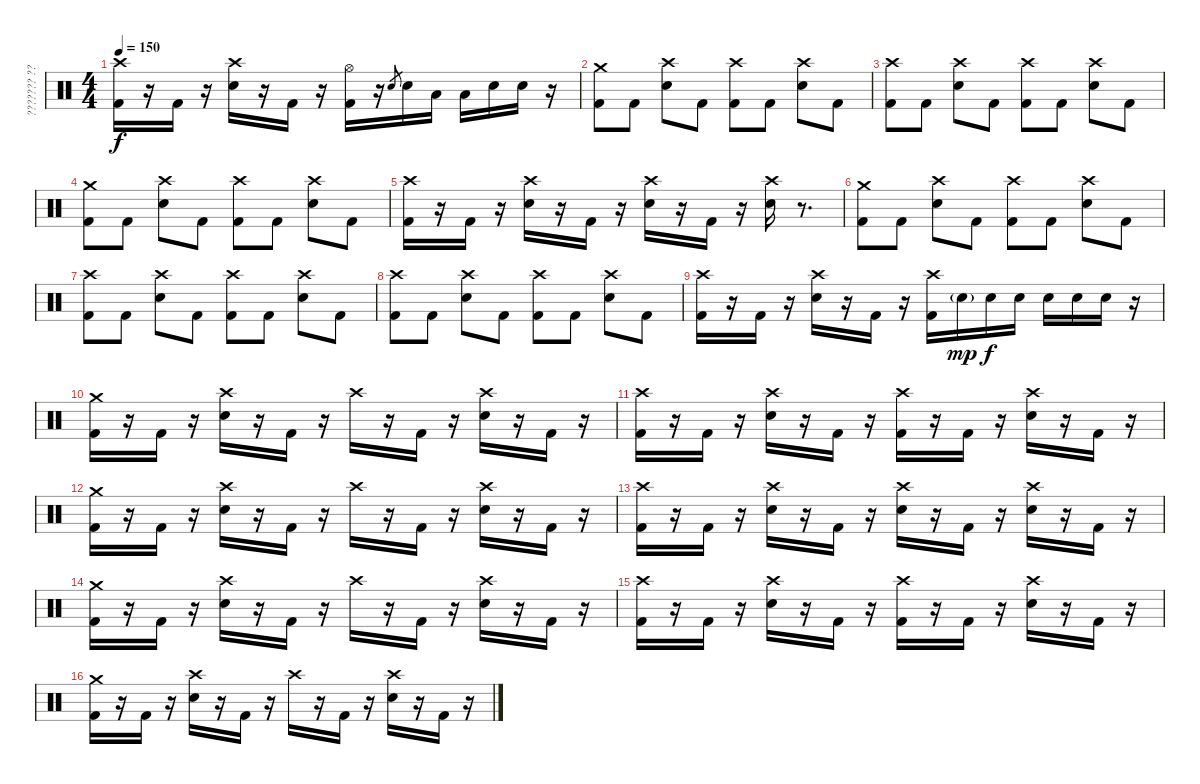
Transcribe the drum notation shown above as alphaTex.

\track ("??????? ?????????" "??????? ??") {instrument percussion}
\staff {score}
\articulation defaults
\ts (4 4)
\tempo 150
\clef neutral
\ks c
("Crash high (hit)" "Kick (hit) 2").16{dy f} r.16 "Kick (hit) 2".16 r.16 ("Crash high (hit)" "Electric Snare (hit)").16 r.16 "Kick (hit) 2".16 r.16 ("Hi-Hat (open)" "Kick (hit) 2").16 r.16 "Electric Snare (hit)".8{gr} "Electric Snare (hit)".16 "Low Tom (hit)".16 "Low Tom (hit)".16 "Electric Snare (hit)".16 "Electric Snare (hit)".16 r.16 |
("Crash medium (hit)" "Kick (hit) 2").8 "Kick (hit) 2".8 ("Crash high (hit)" "Electric Snare (hit)").8 "Kick (hit) 2".8 ("Crash high (hit)" "Kick (hit) 2").8 "Kick (hit) 2".8 ("Crash high (hit)" "Electric Snare (hit)").8 "Kick (hit) 2".8 |
("Crash high (hit)" "Kick (hit) 2").8 "Kick (hit) 2".8 ("Crash high (hit)" "Electric Snare (hit)").8 "Kick (hit) 2".8 ("Crash high (hit)" "Kick (hit) 2").8 "Kick (hit) 2".8 ("Crash high (hit)" "Electric Snare (hit)").8 "Kick (hit) 2".8 |
("Crash medium (hit)" "Kick (hit) 2").8 "Kick (hit) 2".8 ("Crash high (hit)" "Electric Snare (hit)").8 "Kick (hit) 2".8 ("Crash high (hit)" "Kick (hit) 2").8 "Kick (hit) 2".8 ("Crash high (hit)" "Electric Snare (hit)").8 "Kick (hit) 2".8 |
("Crash high (hit)" "Kick (hit) 2").16 r.16 "Kick (hit) 2".16 r.16 ("Crash high (hit)" "Electric Snare (hit)").16 r.16 "Kick (hit) 2".16 r.16 ("Crash high (hit)" "Electric Snare (hit)").16 r.16 "Kick (hit) 2".16 r.16 ("Crash high (hit)" "Electric Snare (hit)").16 r.8{d} |
("Crash medium (hit)" "Kick (hit) 2").8 "Kick (hit) 2".8 ("Crash high (hit)" "Electric Snare (hit)").8 "Kick (hit) 2".8 ("Crash high (hit)" "Kick (hit) 2").8 "Kick (hit) 2".8 ("Crash high (hit)" "Electric Snare (hit)").8 "Kick (hit) 2".8 |
("Crash high (hit)" "Kick (hit) 2").8 "Kick (hit) 2".8 ("Crash high (hit)" "Electric Snare (hit)").8 "Kick (hit) 2".8 ("Crash high (hit)" "Kick (hit) 2").8 "Kick (hit) 2".8 ("Crash high (hit)" "Electric Snare (hit)").8 "Kick (hit) 2".8 |
("Crash high (hit)" "Kick (hit) 2").8 "Kick (hit) 2".8 ("Crash high (hit)" "Electric Snare (hit)").8 "Kick (hit) 2".8 ("Crash high (hit)" "Kick (hit) 2").8 "Kick (hit) 2".8 ("Crash high (hit)" "Electric Snare (hit)").8 "Kick (hit) 2".8 |
("Crash high (hit)" "Kick (hit) 2").16 r.16 "Kick (hit) 2".16 r.16 ("Crash high (hit)" "Electric Snare (hit)").16 r.16 "Kick (hit) 2".16 r.16 ("Crash high (hit)" "Kick (hit) 2").16 "Electric Snare (hit)"{g}.16{dy mp} "Electric Snare (hit)".16{dy f} "Electric Snare (hit)".16 "Electric Snare (hit)".16 "Electric Snare (hit)".16 "Electric Snare (hit)".16 r.16 |
("Crash medium (hit)" "Kick (hit) 2").16 r.16 "Kick (hit) 2".16 r.16 ("Crash high (hit)" "Electric Snare (hit)").16 r.16 "Kick (hit) 2".16 r.16 "Crash high (hit)".16 r.16 "Kick (hit) 2".16 r.16 ("Crash high (hit)" "Electric Snare (hit)").16 r.16 "Kick (hit) 2".16 r.16 |
("Crash high (hit)" "Kick (hit) 2").16 r.16 "Kick (hit) 2".16 r.16 ("Crash high (hit)" "Electric Snare (hit)").16 r.16 "Kick (hit) 2".16 r.16 ("Crash high (hit)" "Kick (hit) 2").16 r.16 "Kick (hit) 2".16 r.16 ("Crash high (hit)" "Electric Snare (hit)").16 r.16 "Kick (hit) 2".16 r.16 |
("Crash medium (hit)" "Kick (hit) 2").16 r.16 "Kick (hit) 2".16 r.16 ("Crash high (hit)" "Electric Snare (hit)").16 r.16 "Kick (hit) 2".16 r.16 "Crash high (hit)".16 r.16 "Kick (hit) 2".16 r.16 ("Crash high (hit)" "Electric Snare (hit)").16 r.16 "Kick (hit) 2".16 r.16 |
("Crash high (hit)" "Kick (hit) 2").16 r.16 "Kick (hit) 2".16 r.16 ("Crash high (hit)" "Electric Snare (hit)").16 r.16 "Kick (hit) 2".16 r.16 ("Crash high (hit)" "Electric Snare (hit)").16 r.16 "Kick (hit) 2".16 r.16 ("Crash high (hit)" "Electric Snare (hit)").16 r.16 "Kick (hit) 2".16 r.16 |
("Crash medium (hit)" "Kick (hit) 2").16 r.16 "Kick (hit) 2".16 r.16 ("Crash high (hit)" "Electric Snare (hit)").16 r.16 "Kick (hit) 2".16 r.16 "Crash high (hit)".16 r.16 "Kick (hit) 2".16 r.16 ("Crash high (hit)" "Electric Snare (hit)").16 r.16 "Kick (hit) 2".16 r.16 |
("Crash high (hit)" "Kick (hit) 2").16 r.16 "Kick (hit) 2".16 r.16 ("Crash high (hit)" "Electric Snare (hit)").16 r.16 "Kick (hit) 2".16 r.16 ("Crash high (hit)" "Kick (hit) 2").16 r.16 "Kick (hit) 2".16 r.16 ("Crash high (hit)" "Electric Snare (hit)").16 r.16 "Kick (hit) 2".16 r.16 |
("Crash medium (hit)" "Kick (hit) 2").16 r.16 "Kick (hit) 2".16 r.16 ("Crash high (hit)" "Electric Snare (hit)").16 r.16 "Kick (hit) 2".16 r.16 "Crash high (hit)".16 r.16 "Kick (hit) 2".16 r.16 ("Crash high (hit)" "Electric Snare (hit)").16 r.16 "Kick (hit) 2".16 r.16
